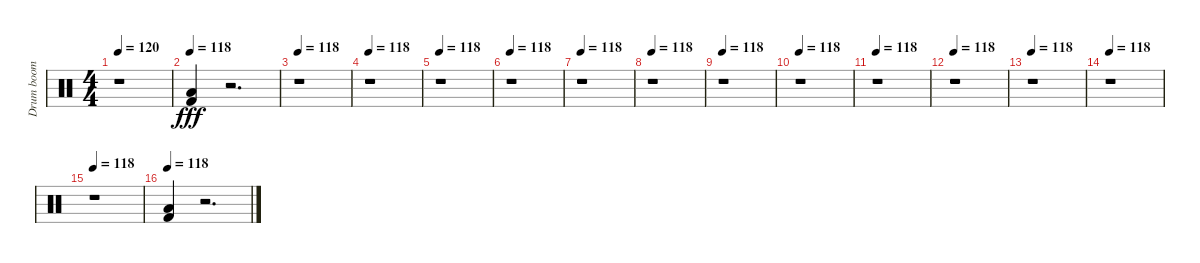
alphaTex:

\track ("Drum boom" "Drum boom") {instrument percussion}
\staff {score}
\articulation defaults
\ts (4 4)
\tempo 120
\clef neutral
\ks c
r.1{dy fff} |
\tempo 118
("Low Floor Tom (hit)" "Kick (hit) 2").4 r.2{d} |
\tempo 118
r.1 |
\tempo 118
r.1 |
\tempo 118
r.1 |
\tempo 118
r.1 |
\tempo 118
r.1 |
\tempo 118
r.1 |
\tempo 118
r.1 |
\tempo 118
r.1 |
\tempo 118
r.1 |
\tempo 118
r.1 |
\tempo 118
r.1 |
\tempo 118
r.1 |
\tempo 118
r.1 |
\tempo 118
("Low Floor Tom (hit)" "Kick (hit) 2").4{balance 8} r.2{d}
